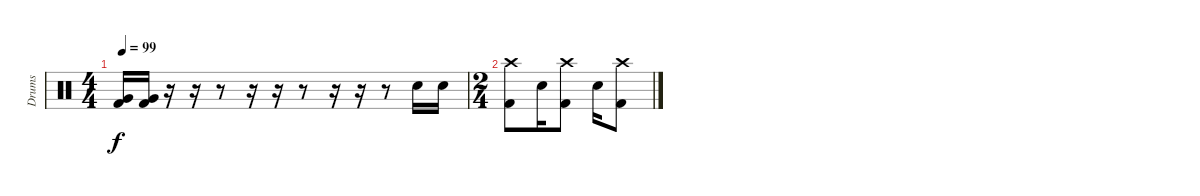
\track ("Drums" "Drums") {instrument percussion}
\staff {score}
\articulation defaults
\ts (4 4)
\tempo 99
\clef neutral
\ks c
("Very Low Tom (hit)" "Kick (hit) 2").16{dy f} ("Very Low Tom (hit)" "Kick (hit) 2").16 r.16 r.16 r.8 r.16 r.16 r.8 r.16 r.16 r.8 "Snare (hit) 2".16 "Snare (hit) 2".16 |
\ts (2 4)
("Crash high (hit)" "Kick (hit) 2").8 "Snare (hit) 2".16 ("Crash high (hit)" "Kick (hit) 2").8 "Snare (hit) 2".16 ("Crash high (hit)" "Kick (hit) 2").8
